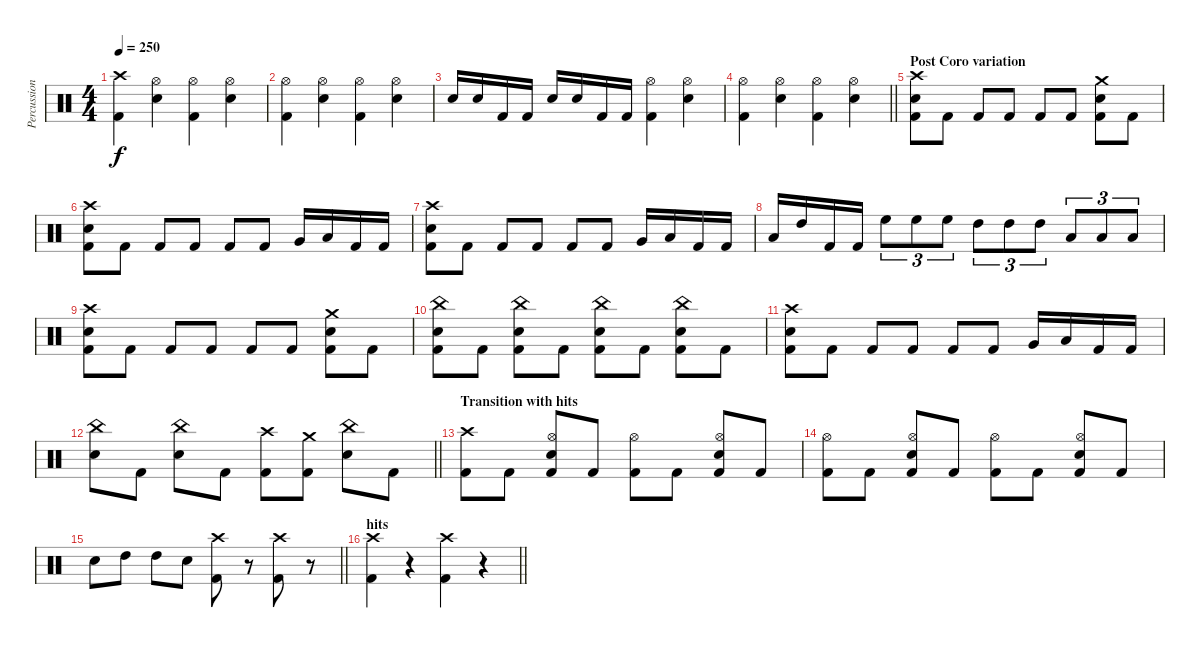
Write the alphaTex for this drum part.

\track ("Percussion" "Percussion") {instrument percussion}
\staff {score}
\articulation defaults
\ts (4 4)
\tempo 250
\clef neutral
\ks c
("Crash high (hit)" "Kick (hit) 2").4{dy f} ("Hi-Hat (open)" "Electric Snare (hit)").4 ("Hi-Hat (open)" "Kick (hit) 2").4 ("Hi-Hat (open)" "Electric Snare (hit)").4 |
("Hi-Hat (open)" "Kick (hit) 2").4 ("Hi-Hat (open)" "Electric Snare (hit)").4 ("Hi-Hat (open)" "Kick (hit) 2").4 ("Hi-Hat (open)" "Electric Snare (hit)").4 |
"Electric Snare (hit)".16 "Electric Snare (hit)".16 "Kick (hit) 2".16 "Kick (hit) 2".16 "Electric Snare (hit)".16 "Electric Snare (hit)".16 "Kick (hit) 2".16 "Kick (hit) 2".16 ("Hi-Hat (open)" "Kick (hit) 2").4 ("Hi-Hat (open)" "Electric Snare (hit)").4 |
\barLineRight lightlight
("Hi-Hat (open)" "Kick (hit) 2").4 ("Hi-Hat (open)" "Electric Snare (hit)").4 ("Hi-Hat (open)" "Kick (hit) 2").4 ("Hi-Hat (open)" "Electric Snare (hit)").4 |
\section ("" "Post Coro variation")
("Crash high (hit)" "Kick (hit) 2" "Electric Snare (hit)").8 "Kick (hit) 2".8 "Kick (hit) 2".8 "Kick (hit) 2".8 "Kick (hit) 2".8 "Kick (hit) 2".8 ("Crash medium (hit)" "Kick (hit) 2" "Electric Snare (hit)").8 "Kick (hit) 2".8 |
("Crash high (hit)" "Kick (hit) 2" "Electric Snare (hit)").8 "Kick (hit) 2".8 "Kick (hit) 2".8 "Kick (hit) 2".8 "Kick (hit) 2".8 "Kick (hit) 2".8 "Very Low Tom (hit)".16 "Low Tom (hit)".16 "Kick (hit) 2".16 "Kick (hit) 2".16 |
("Crash high (hit)" "Kick (hit) 2" "Electric Snare (hit)").8 "Kick (hit) 2".8 "Kick (hit) 2".8 "Kick (hit) 2".8 "Kick (hit) 2".8 "Kick (hit) 2".8 "Very Low Tom (hit)".16 "Low Tom (hit)".16 "Kick (hit) 2".16 "Kick (hit) 2".16 |
"Low Tom (hit)".16 "High Tom (hit)".16 "Kick (hit) 2".16 "Kick (hit) 2".16 "High Floor Tom (hit)".8{tu (3 2)} "High Floor Tom (hit)".8{tu (3 2)} "High Floor Tom (hit)".8{tu (3 2)} "High Tom (hit)".8{tu (3 2)} "High Tom (hit)".8{tu (3 2)} "High Tom (hit)".8{tu (3 2)} "Low Tom (hit)".8{tu (3 2)} "Low Tom (hit)".8{tu (3 2)} "Low Tom (hit)".8{tu (3 2)} |
("Crash high (hit)" "Kick (hit) 2" "Electric Snare (hit)").8 "Kick (hit) 2".8 "Kick (hit) 2".8 "Kick (hit) 2".8 "Kick (hit) 2".8 "Kick (hit) 2".8 ("Crash medium (hit)" "Kick (hit) 2" "Electric Snare (hit)").8 "Kick (hit) 2".8 |
("China (hit)" "Kick (hit) 2" "Electric Snare (hit)").8 "Kick (hit) 2".8 ("China (hit)" "Kick (hit) 2" "Electric Snare (hit)").8 "Kick (hit) 2".8 ("China (hit)" "Kick (hit) 2" "Electric Snare (hit)").8 "Kick (hit) 2".8 ("China (hit)" "Kick (hit) 2" "Electric Snare (hit)").8 "Kick (hit) 2".8 |
("Crash high (hit)" "Kick (hit) 2" "Electric Snare (hit)").8 "Kick (hit) 2".8 "Kick (hit) 2".8 "Kick (hit) 2".8 "Kick (hit) 2".8 "Kick (hit) 2".8 "Very Low Tom (hit)".16 "Low Tom (hit)".16 "Kick (hit) 2".16 "Kick (hit) 2".16 |
\barLineRight lightlight
("China (hit)" "Electric Snare (hit)").8 "Kick (hit) 2".8 ("China (hit)" "Electric Snare (hit)").8 "Kick (hit) 2".8 ("Crash high (hit)" "Kick (hit) 2").8 ("Crash medium (hit)" "Kick (hit) 2").8 ("China (hit)" "Electric Snare (hit)").8 "Kick (hit) 2".8 |
\section ("" "Transition with hits")
("Crash high (hit)" "Kick (hit) 2").8 "Kick (hit) 2".8 ("Hi-Hat (open)" "Kick (hit) 2" "Electric Snare (hit)").8 "Kick (hit) 2".8 ("Hi-Hat (open)" "Kick (hit) 2").8 "Kick (hit) 2".8 ("Hi-Hat (open)" "Kick (hit) 2" "Electric Snare (hit)").8 "Kick (hit) 2".8 |
("Hi-Hat (open)" "Kick (hit) 2").8 "Kick (hit) 2".8 ("Hi-Hat (open)" "Kick (hit) 2" "Electric Snare (hit)").8 "Kick (hit) 2".8 ("Hi-Hat (open)" "Kick (hit) 2").8 "Kick (hit) 2".8 ("Hi-Hat (open)" "Kick (hit) 2" "Electric Snare (hit)").8 "Kick (hit) 2".8 |
\barLineRight lightlight "Electric Snare (hit)".8 "High Tom (hit)".8 "High Tom (hit)".8 "Electric Snare (hit)".8
("Crash high (hit)" "Kick (hit) 2").8{volume 14} r.8{volume 0} ("Crash high (hit)" "Kick (hit) 2").8{volume 14} r.8{volume 0} |
\section ("" "hits")
\barLineRight lightlight
("Crash high (hit)" "Kick (hit) 2").4{volume 14} r.4{volume 0} ("Crash high (hit)" "Kick (hit) 2").4{volume 14} r.4{volume 0}
